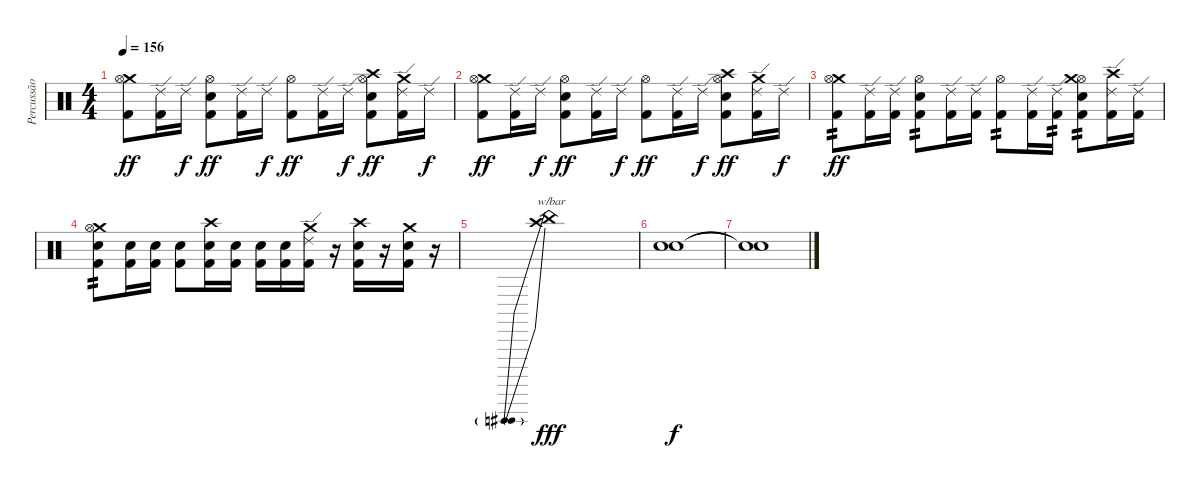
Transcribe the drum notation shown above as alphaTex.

\track ("Percussão" "Percussão") {instrument percussion}
\staff {score}
\articulation defaults
\ts (4 4)
\tempo 156
\clef neutral
\ks c
("Crash medium (hit)" "Hi-Hat (open)" "Kick (hit) 2").8{dy ff} ("Ride (edge) 2" "Kick (hit) 2").16 "Ride (edge) 2".16{dy f} ("Hi-Hat (open)" "Snare (hit) 2" "Kick (hit) 2").8{dy ff} ("Ride (edge) 2" "Kick (hit) 2").16 "Ride (edge) 2".16{dy f} ("Hi-Hat (open)" "Kick (hit) 2").8{dy ff} ("Ride (edge) 2" "Kick (hit) 2").16 "Ride (edge) 2".16{dy f} ("Hi-Hat (open)" "Crash high (hit)" "Snare (hit) 2" "Kick (hit) 2").8{dy ff} ("Ride (edge) 2" "Crash medium (hit)" "Kick (hit) 2").16 "Ride (edge) 2".16{dy f} |
("Crash medium (hit)" "Hi-Hat (open)" "Kick (hit) 2").8{dy ff} ("Ride (edge) 2" "Kick (hit) 2").16 "Ride (edge) 2".16{dy f} ("Hi-Hat (open)" "Snare (hit) 2" "Kick (hit) 2").8{dy ff} ("Ride (edge) 2" "Kick (hit) 2").16 "Ride (edge) 2".16{dy f} ("Hi-Hat (open)" "Kick (hit) 2").8{dy ff} ("Ride (edge) 2" "Kick (hit) 2").16 "Ride (edge) 2".16{dy f} ("Hi-Hat (open)" "Crash high (hit)" "Snare (hit) 2" "Kick (hit) 2").8{dy ff} ("Ride (edge) 2" "Crash medium (hit)" "Kick (hit) 2").16 "Ride (edge) 2".16{dy f} |
("Crash medium (hit)" "Hi-Hat (open)" "Kick (hit) 2").8{tp 2 dy ff} ("Ride (edge) 2" "Kick (hit) 2").16 ("Ride (edge) 2" "Kick (hit) 2").16 ("Hi-Hat (open)" "Snare (hit) 2" "Kick (hit) 2").8{tp 2} ("Ride (edge) 2" "Kick (hit) 2").16 ("Ride (edge) 2" "Kick (hit) 2").16 ("Hi-Hat (open)" "Kick (hit) 2").8{tp 2} ("Ride (edge) 2" "Kick (hit) 2").16 ("Ride (edge) 2" "Kick (hit) 2").16{tp 2} ("Hi-Hat (open)" "Crash medium (hit)" "Snare (hit) 2" "Kick (hit) 2").8{tp 2} ("Ride (edge) 2" "Crash high (hit)" "Kick (hit) 2").16 ("Ride (edge) 2" "Kick (hit) 2").16 |
("Crash medium (hit)" "Hi-Hat (open)" "Snare (hit) 2" "Kick (hit) 2").8{tp 2} ("Snare (hit) 2" "Kick (hit) 2").16 ("Snare (hit) 2" "Kick (hit) 2").16 ("Snare (hit) 2" "Kick (hit) 2").8 ("Crash high (hit)" "Snare (hit) 2" "Kick (hit) 2").16 ("Snare (hit) 2" "Kick (hit) 2").16 ("Snare (hit) 2" "Kick (hit) 2").16 ("Snare (hit) 2" "Kick (hit) 2").16 ("Ride (edge) 2" "Crash medium (hit)" "Kick (hit) 2").16 r.16 ("Crash high (hit)" "Snare (hit) 2" "Kick (hit) 2").16 r.16 ("Crash medium (hit)" "Snare (hit) 2" "Kick (hit) 2").16 r.16 |
("China (hit)" "Crash high (hit)").1{tbe (predive default 0 -8 60 -8) dy fff} |
("Snare (hit)"{t} "Snare (hit)"{t}).1{dy f} |
("Snare (hit)"{t} "Snare (hit)"{t}).1
